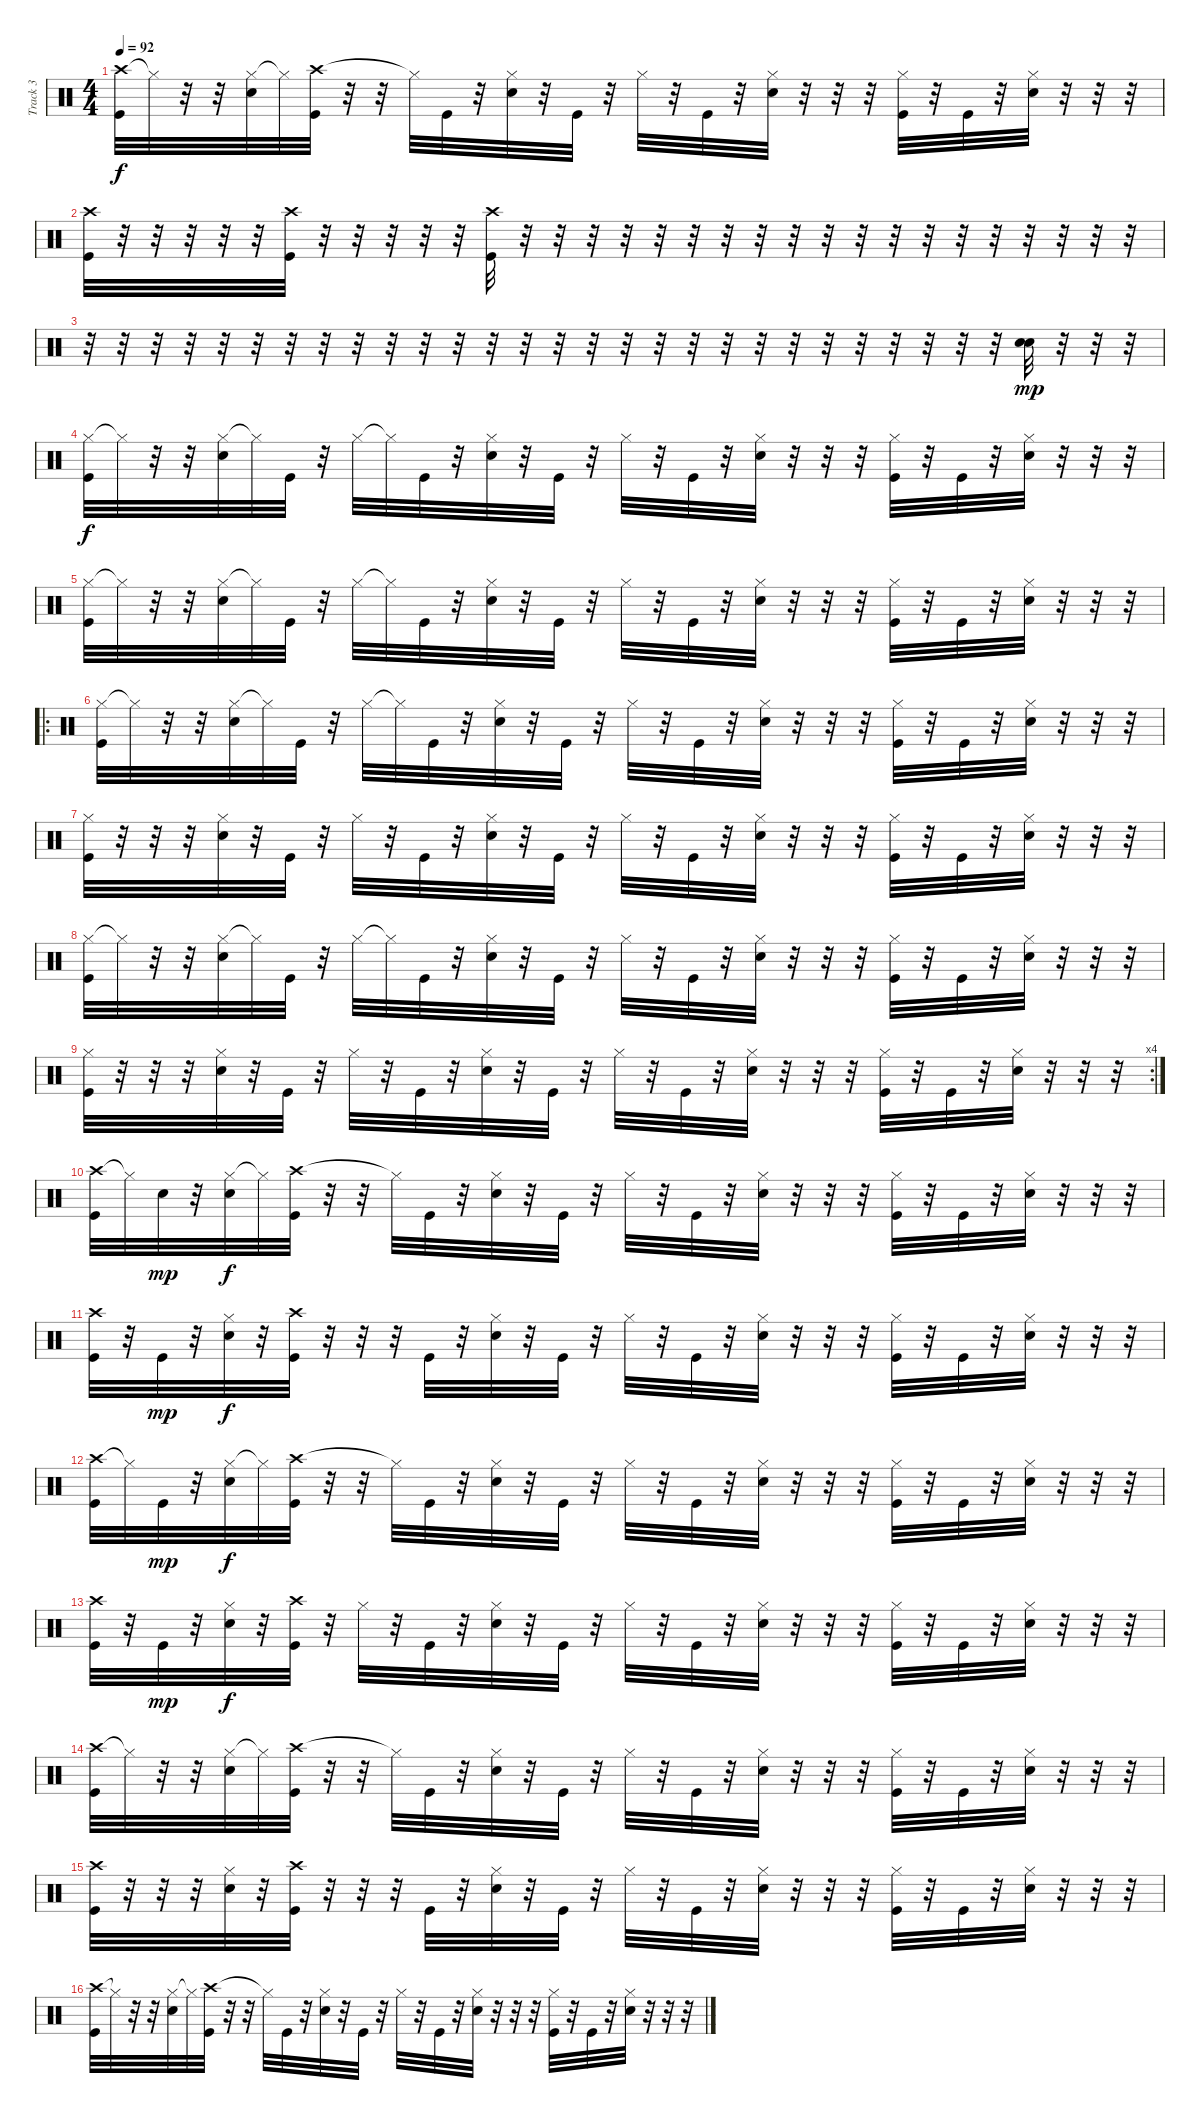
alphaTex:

\track ("Track 3" "Track 3") {instrument percussion}
\staff {score}
\articulation defaults
\ts (4 4)
\tempo 92
\clef neutral
\ks c
("Crash high (hit)" "Kick (hit)").32{dy f} "Hi-Hat (closed)"{t}.32 r.32 r.32 ("Hi-Hat (closed)" "Electric Snare (hit)").32 "Hi-Hat (closed)"{t}.32 ("Crash high (hit)" "Kick (hit)").32 r.32 r.32 "Hi-Hat (closed)"{t}.32 "Kick (hit)".32 r.32 ("Hi-Hat (closed)" "Electric Snare (hit)").32 r.32 "Kick (hit)".32 r.32 "Hi-Hat (closed)".32 r.32 "Kick (hit)".32 r.32 ("Hi-Hat (closed)" "Electric Snare (hit)").32 r.32 r.32 r.32 ("Hi-Hat (closed)" "Kick (hit)").32 r.32 "Kick (hit)".32 r.32 ("Hi-Hat (closed)" "Electric Snare (hit)").32 r.32 r.32 r.32 |
("Crash high (hit)" "Kick (hit)").32 r.32 r.32 r.32 r.32 r.32 ("Crash high (hit)" "Kick (hit)").32 r.32 r.32 r.32 r.32 r.32 ("Crash high (hit)" "Kick (hit)").32 r.32 r.32 r.32 r.32 r.32 r.32 r.32 r.32 r.32 r.32 r.32 r.32 r.32 r.32 r.32 r.32 r.32 r.32 r.32 |
r.32 r.32 r.32 r.32 r.32 r.32 r.32 r.32 r.32 r.32 r.32 r.32 r.32 r.32 r.32 r.32 r.32 r.32 r.32 r.32 r.32 r.32 r.32 r.32 r.32 r.32 r.32 r.32 ("Snare (hit) 2" "Electric Snare (hit)").32{dy mp} r.32 r.32 r.32 |
("Hi-Hat (closed)" "Kick (hit)").32{dy f} "Hi-Hat (closed)"{t}.32 r.32 r.32 ("Hi-Hat (closed)" "Electric Snare (hit)").32 "Hi-Hat (closed)"{t}.32 "Kick (hit)".32 r.32 "Hi-Hat (closed)".32 "Hi-Hat (closed)"{t}.32 "Kick (hit)".32 r.32 ("Hi-Hat (closed)" "Electric Snare (hit)").32 r.32 "Kick (hit)".32 r.32 "Hi-Hat (closed)".32 r.32 "Kick (hit)".32 r.32 ("Hi-Hat (closed)" "Electric Snare (hit)").32 r.32 r.32 r.32 ("Hi-Hat (closed)" "Kick (hit)").32 r.32 "Kick (hit)".32 r.32 ("Hi-Hat (closed)" "Electric Snare (hit)").32 r.32 r.32 r.32 |
("Hi-Hat (closed)" "Kick (hit)").32 "Hi-Hat (closed)"{t}.32 r.32 r.32 ("Hi-Hat (closed)" "Electric Snare (hit)").32 "Hi-Hat (closed)"{t}.32 "Kick (hit)".32 r.32 "Hi-Hat (closed)".32 "Hi-Hat (closed)"{t}.32 "Kick (hit)".32 r.32 ("Hi-Hat (closed)" "Electric Snare (hit)").32 r.32 "Kick (hit)".32 r.32 "Hi-Hat (closed)".32 r.32 "Kick (hit)".32 r.32 ("Hi-Hat (closed)" "Electric Snare (hit)").32 r.32 r.32 r.32 ("Hi-Hat (closed)" "Kick (hit)").32 r.32 "Kick (hit)".32 r.32 ("Hi-Hat (closed)" "Electric Snare (hit)").32 r.32 r.32 r.32 |
\ro
("Hi-Hat (closed)" "Kick (hit)").32 "Hi-Hat (closed)"{t}.32 r.32 r.32 ("Hi-Hat (closed)" "Electric Snare (hit)").32 "Hi-Hat (closed)"{t}.32 "Kick (hit)".32 r.32 "Hi-Hat (closed)".32 "Hi-Hat (closed)"{t}.32 "Kick (hit)".32 r.32 ("Hi-Hat (closed)" "Electric Snare (hit)").32 r.32 "Kick (hit)".32 r.32 "Hi-Hat (closed)".32 r.32 "Kick (hit)".32 r.32 ("Hi-Hat (closed)" "Electric Snare (hit)").32 r.32 r.32 r.32 ("Hi-Hat (closed)" "Kick (hit)").32 r.32 "Kick (hit)".32 r.32 ("Hi-Hat (closed)" "Electric Snare (hit)").32 r.32 r.32 r.32 |
("Hi-Hat (closed)" "Kick (hit)").32 r.32 r.32 r.32 ("Hi-Hat (closed)" "Electric Snare (hit)").32 r.32 "Kick (hit)".32 r.32 "Hi-Hat (closed)".32 r.32 "Kick (hit)".32 r.32 ("Hi-Hat (closed)" "Electric Snare (hit)").32 r.32 "Kick (hit)".32 r.32 "Hi-Hat (closed)".32 r.32 "Kick (hit)".32 r.32 ("Hi-Hat (closed)" "Electric Snare (hit)").32 r.32 r.32 r.32 ("Hi-Hat (closed)" "Kick (hit)").32 r.32 "Kick (hit)".32 r.32 ("Hi-Hat (closed)" "Electric Snare (hit)").32 r.32 r.32 r.32 |
("Hi-Hat (closed)" "Kick (hit)").32 "Hi-Hat (closed)"{t}.32 r.32 r.32 ("Hi-Hat (closed)" "Electric Snare (hit)").32 "Hi-Hat (closed)"{t}.32 "Kick (hit)".32 r.32 "Hi-Hat (closed)".32 "Hi-Hat (closed)"{t}.32 "Kick (hit)".32 r.32 ("Hi-Hat (closed)" "Electric Snare (hit)").32 r.32 "Kick (hit)".32 r.32 "Hi-Hat (closed)".32 r.32 "Kick (hit)".32 r.32 ("Hi-Hat (closed)" "Electric Snare (hit)").32 r.32 r.32 r.32 ("Hi-Hat (closed)" "Kick (hit)").32 r.32 "Kick (hit)".32 r.32 ("Hi-Hat (closed)" "Electric Snare (hit)").32 r.32 r.32 r.32 |
\rc 4
("Hi-Hat (closed)" "Kick (hit)").32 r.32 r.32 r.32 ("Hi-Hat (closed)" "Electric Snare (hit)").32 r.32 "Kick (hit)".32 r.32 "Hi-Hat (closed)".32 r.32 "Kick (hit)".32 r.32 ("Hi-Hat (closed)" "Electric Snare (hit)").32 r.32 "Kick (hit)".32 r.32 "Hi-Hat (closed)".32 r.32 "Kick (hit)".32 r.32 ("Hi-Hat (closed)" "Electric Snare (hit)").32 r.32 r.32 r.32 ("Hi-Hat (closed)" "Kick (hit)").32 r.32 "Kick (hit)".32 r.32 ("Hi-Hat (closed)" "Electric Snare (hit)").32 r.32 r.32 r.32 |
("Crash high (hit)" "Kick (hit)").32 "Hi-Hat (closed)"{t}.32 "Metronome (bell)".32{dy mp} r.32 ("Hi-Hat (closed)" "Electric Snare (hit)").32{dy f} "Hi-Hat (closed)"{t}.32 ("Crash high (hit)" "Kick (hit)").32 r.32 r.32 "Hi-Hat (closed)"{t}.32 "Kick (hit)".32 r.32 ("Hi-Hat (closed)" "Electric Snare (hit)").32 r.32 "Kick (hit)".32 r.32 "Hi-Hat (closed)".32 r.32 "Kick (hit)".32 r.32 ("Hi-Hat (closed)" "Electric Snare (hit)").32 r.32 r.32 r.32 ("Hi-Hat (closed)" "Kick (hit)").32 r.32 "Kick (hit)".32 r.32 ("Hi-Hat (closed)" "Electric Snare (hit)").32 r.32 r.32 r.32 |
("Crash high (hit)" "Kick (hit)").32 r.32 "Kick (hit)".32{dy mp} r.32 ("Hi-Hat (closed)" "Electric Snare (hit)").32{dy f} r.32 ("Crash high (hit)" "Kick (hit)").32 r.32 r.32 r.32 "Kick (hit)".32 r.32 ("Hi-Hat (closed)" "Electric Snare (hit)").32 r.32 "Kick (hit)".32 r.32 "Hi-Hat (closed)".32 r.32 "Kick (hit)".32 r.32 ("Hi-Hat (closed)" "Electric Snare (hit)").32 r.32 r.32 r.32 ("Hi-Hat (closed)" "Kick (hit)").32 r.32 "Kick (hit)".32 r.32 ("Hi-Hat (closed)" "Electric Snare (hit)").32 r.32 r.32 r.32 |
("Crash high (hit)" "Kick (hit)").32 "Hi-Hat (closed)"{t}.32 "Kick (hit)".32{dy mp} r.32 ("Hi-Hat (closed)" "Electric Snare (hit)").32{dy f} "Hi-Hat (closed)"{t}.32 ("Crash high (hit)" "Kick (hit)").32 r.32 r.32 "Hi-Hat (closed)"{t}.32 "Kick (hit)".32 r.32 ("Hi-Hat (closed)" "Electric Snare (hit)").32 r.32 "Kick (hit)".32 r.32 "Hi-Hat (closed)".32 r.32 "Kick (hit)".32 r.32 ("Hi-Hat (closed)" "Electric Snare (hit)").32 r.32 r.32 r.32 ("Hi-Hat (closed)" "Kick (hit)").32 r.32 "Kick (hit)".32 r.32 ("Hi-Hat (closed)" "Electric Snare (hit)").32 r.32 r.32 r.32 |
("Crash high (hit)" "Kick (hit)").32 r.32 "Kick (hit)".32{dy mp} r.32 ("Hi-Hat (closed)" "Electric Snare (hit)").32{dy f} r.32 ("Crash high (hit)" "Kick (hit)").32 r.32 "Hi-Hat (closed)".32 r.32 "Kick (hit)".32 r.32 ("Hi-Hat (closed)" "Electric Snare (hit)").32 r.32 "Kick (hit)".32 r.32 "Hi-Hat (closed)".32 r.32 "Kick (hit)".32 r.32 ("Hi-Hat (closed)" "Electric Snare (hit)").32 r.32 r.32 r.32 ("Hi-Hat (closed)" "Kick (hit)").32 r.32 "Kick (hit)".32 r.32 ("Hi-Hat (closed)" "Electric Snare (hit)").32 r.32 r.32 r.32 |
("Crash high (hit)" "Kick (hit)").32 "Hi-Hat (closed)"{t}.32 r.32 r.32 ("Hi-Hat (closed)" "Electric Snare (hit)").32 "Hi-Hat (closed)"{t}.32 ("Crash high (hit)" "Kick (hit)").32 r.32 r.32 "Hi-Hat (closed)"{t}.32 "Kick (hit)".32 r.32 ("Hi-Hat (closed)" "Electric Snare (hit)").32 r.32 "Kick (hit)".32 r.32 "Hi-Hat (closed)".32 r.32 "Kick (hit)".32 r.32 ("Hi-Hat (closed)" "Electric Snare (hit)").32 r.32 r.32 r.32 ("Hi-Hat (closed)" "Kick (hit)").32 r.32 "Kick (hit)".32 r.32 ("Hi-Hat (closed)" "Electric Snare (hit)").32 r.32 r.32 r.32 |
("Crash high (hit)" "Kick (hit)").32 r.32 r.32 r.32 ("Hi-Hat (closed)" "Electric Snare (hit)").32 r.32 ("Crash high (hit)" "Kick (hit)").32 r.32 r.32 r.32 "Kick (hit)".32 r.32 ("Hi-Hat (closed)" "Electric Snare (hit)").32 r.32 "Kick (hit)".32 r.32 "Hi-Hat (closed)".32 r.32 "Kick (hit)".32 r.32 ("Hi-Hat (closed)" "Electric Snare (hit)").32 r.32 r.32 r.32 ("Hi-Hat (closed)" "Kick (hit)").32 r.32 "Kick (hit)".32 r.32 ("Hi-Hat (closed)" "Electric Snare (hit)").32 r.32 r.32 r.32 |
("Crash high (hit)" "Kick (hit)").32 "Hi-Hat (closed)"{t}.32 r.32 r.32 ("Hi-Hat (closed)" "Electric Snare (hit)").32 "Hi-Hat (closed)"{t}.32 ("Crash high (hit)" "Kick (hit)").32 r.32 r.32 "Hi-Hat (closed)"{t}.32 "Kick (hit)".32 r.32 ("Hi-Hat (closed)" "Electric Snare (hit)").32 r.32 "Kick (hit)".32 r.32 "Hi-Hat (closed)".32 r.32 "Kick (hit)".32 r.32 ("Hi-Hat (closed)" "Electric Snare (hit)").32 r.32 r.32 r.32 ("Hi-Hat (closed)" "Kick (hit)").32 r.32 "Kick (hit)".32 r.32 ("Hi-Hat (closed)" "Electric Snare (hit)").32 r.32 r.32 r.32
